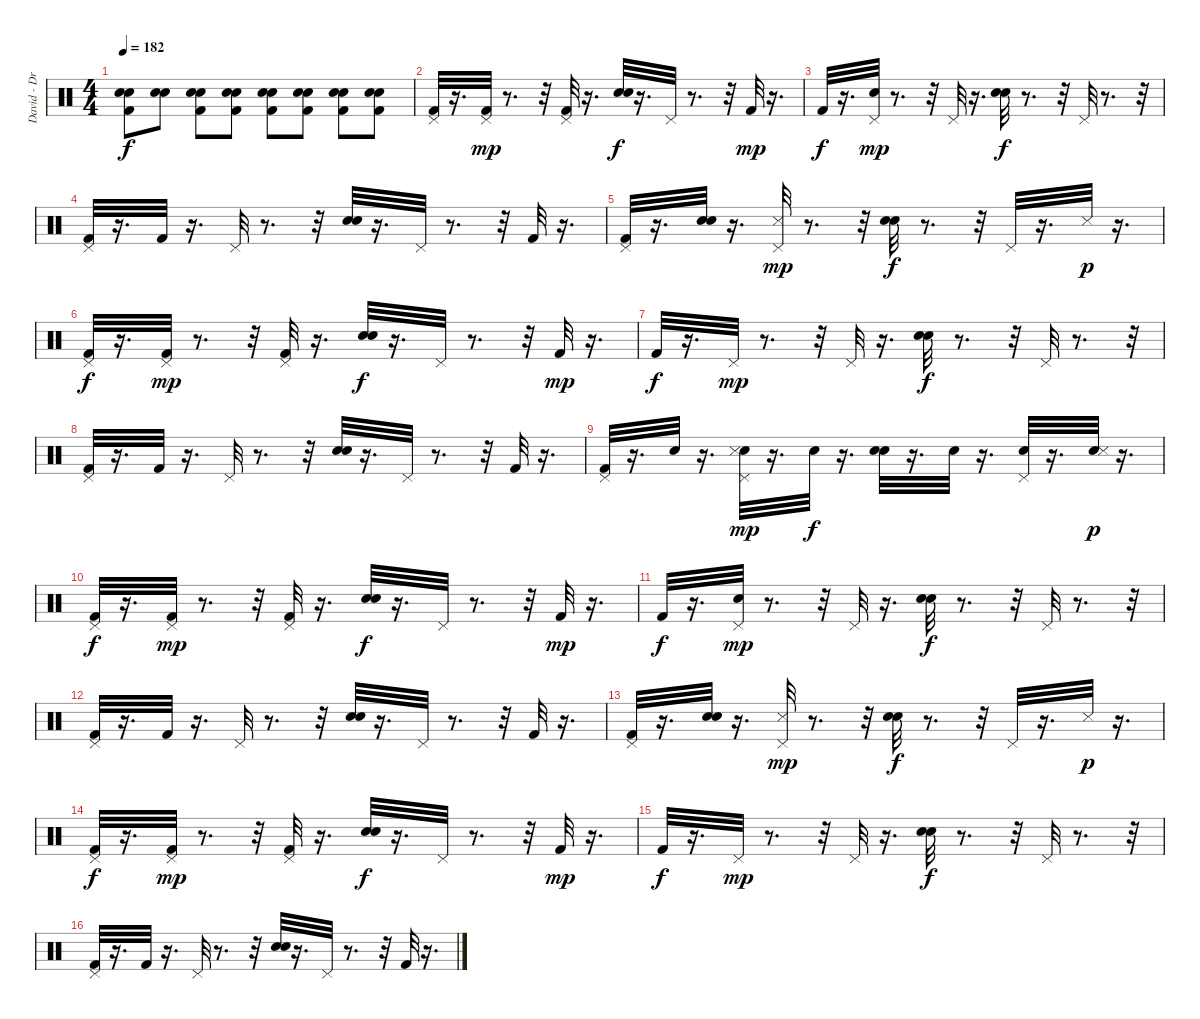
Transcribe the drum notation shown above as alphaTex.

\track ("David - Drums" "David - Dr") {instrument percussion}
\staff {score}
\articulation defaults
\ts (4 4)
\tempo 182
\clef neutral
\ks c
("Electric Snare (hit)" "Kick (hit) 2" "Snare (hit) 2").8{dy f} ("Electric Snare (hit)" "Snare (hit) 2").8 ("Electric Snare (hit)" "Kick (hit) 2" "Snare (hit) 2").8 ("Electric Snare (hit)" "Snare (hit) 2" "Kick (hit) 2").8 ("Electric Snare (hit)" "Kick (hit) 2" "Snare (hit) 2").8 ("Electric Snare (hit)" "Snare (hit) 2" "Kick (hit) 2").8 ("Electric Snare (hit)" "Kick (hit) 2" "Snare (hit) 2").8 ("Electric Snare (hit)" "Snare (hit) 2" "Kick (hit) 2").8 |
("Pedal Hi-Hat (hit)" "Kick (hit) 2").32 r.16{d} ("Kick (hit) 2" "Pedal Hi-Hat (hit)").32{dy mp} r.8{d} r.32 ("Pedal Hi-Hat (hit)" "Kick (hit) 2").32 r.16{d} ("Snare (hit) 2" "Electric Snare (hit)").32{dy f} r.16{d} "Pedal Hi-Hat (hit)".32 r.8{d} r.32 "Kick (hit) 2".32{dy mp} r.16{d} |
"Kick (hit) 2".32{dy f} r.16{d} ("Pedal Hi-Hat (hit)" "Electric Snare (hit)").32{dy mp} r.8{d} r.32 "Pedal Hi-Hat (hit)".32 r.16{d} ("Snare (hit) 2" "Electric Snare (hit)").32{dy f} r.8{d} r.32 "Pedal Hi-Hat (hit)".32 r.8{d} r.32 |
("Pedal Hi-Hat (hit)" "Kick (hit) 2").32 r.16{d} "Kick (hit) 2".32 r.16{d} "Pedal Hi-Hat (hit)".32 r.8{d} r.32 ("Snare (hit) 2" "Electric Snare (hit)").32 r.16{d} "Pedal Hi-Hat (hit)".32 r.8{d} r.32 "Kick (hit) 2".32 r.16{d} |
("Pedal Hi-Hat (hit)" "Kick (hit) 2").32 r.16{d} ("Snare (hit) 2" "Hand Clap (hit)").32 r.16{d} ("Pedal Hi-Hat (hit)" "Snare (side stick) 3").32{dy mp} r.8{d} r.32 ("Snare (hit) 2" "Electric Snare (hit)").32{dy f} r.8{d} r.32 "Pedal Hi-Hat (hit)".32 r.16{d} "Snare (side stick) 3".32{dy p} r.16{d} |
("Pedal Hi-Hat (hit)" "Kick (hit) 2").32{dy f} r.16{d} ("Kick (hit) 2" "Pedal Hi-Hat (hit)").32{dy mp} r.8{d} r.32 ("Pedal Hi-Hat (hit)" "Kick (hit) 2").32 r.16{d} ("Snare (hit) 2" "Electric Snare (hit)").32{dy f} r.16{d} "Pedal Hi-Hat (hit)".32 r.8{d} r.32 "Kick (hit) 2".32{dy mp} r.16{d} |
"Kick (hit) 2".32{dy f} r.16{d} "Pedal Hi-Hat (hit)".32{dy mp} r.8{d} r.32 "Pedal Hi-Hat (hit)".32 r.16{d} ("Snare (hit) 2" "Electric Snare (hit)").32{dy f} r.8{d} r.32 "Pedal Hi-Hat (hit)".32 r.8{d} r.32 |
("Pedal Hi-Hat (hit)" "Kick (hit) 2").32 r.16{d} "Kick (hit) 2".32 r.16{d} "Pedal Hi-Hat (hit)".32 r.8{d} r.32 ("Snare (hit) 2" "Electric Snare (hit)").32 r.16{d} "Pedal Hi-Hat (hit)".32 r.8{d} r.32 "Kick (hit) 2".32 r.16{d} |
("Pedal Hi-Hat (hit)" "Kick (hit) 2").32 r.16{d} "Electric Snare (hit)".32 r.16{d} ("Electric Snare (hit)" "Pedal Hi-Hat (hit)" "Snare (side stick) 3").32{dy mp} r.16{d} "Electric Snare (hit)".32{dy f} r.16{d} ("Snare (hit) 2" "Electric Snare (hit)").32 r.16{d} "Electric Snare (hit)".32 r.16{d} ("Electric Snare (hit)" "Pedal Hi-Hat (hit)").32 r.16{d} ("Electric Snare (hit)" "Snare (side stick) 3").32{dy p} r.16{d} |
("Pedal Hi-Hat (hit)" "Kick (hit) 2").32{dy f} r.16{d} ("Kick (hit) 2" "Pedal Hi-Hat (hit)").32{dy mp} r.8{d} r.32 ("Pedal Hi-Hat (hit)" "Kick (hit) 2").32 r.16{d} ("Snare (hit) 2" "Electric Snare (hit)").32{dy f} r.16{d} "Pedal Hi-Hat (hit)".32 r.8{d} r.32 "Kick (hit) 2".32{dy mp} r.16{d} |
"Kick (hit) 2".32{dy f} r.16{d} ("Pedal Hi-Hat (hit)" "Electric Snare (hit)").32{dy mp} r.8{d} r.32 "Pedal Hi-Hat (hit)".32 r.16{d} ("Snare (hit) 2" "Electric Snare (hit)").32{dy f} r.8{d} r.32 "Pedal Hi-Hat (hit)".32 r.8{d} r.32 |
("Pedal Hi-Hat (hit)" "Kick (hit) 2").32 r.16{d} "Kick (hit) 2".32 r.16{d} "Pedal Hi-Hat (hit)".32 r.8{d} r.32 ("Snare (hit) 2" "Electric Snare (hit)").32 r.16{d} "Pedal Hi-Hat (hit)".32 r.8{d} r.32 "Kick (hit) 2".32 r.16{d} |
("Pedal Hi-Hat (hit)" "Kick (hit) 2").32 r.16{d} ("Snare (hit) 2" "Hand Clap (hit)").32 r.16{d} ("Pedal Hi-Hat (hit)" "Snare (side stick) 3").32{dy mp} r.8{d} r.32 ("Snare (hit) 2" "Electric Snare (hit)").32{dy f} r.8{d} r.32 "Pedal Hi-Hat (hit)".32 r.16{d} "Snare (side stick) 3".32{dy p} r.16{d} |
("Pedal Hi-Hat (hit)" "Kick (hit) 2").32{dy f} r.16{d} ("Kick (hit) 2" "Pedal Hi-Hat (hit)").32{dy mp} r.8{d} r.32 ("Pedal Hi-Hat (hit)" "Kick (hit) 2").32 r.16{d} ("Snare (hit) 2" "Electric Snare (hit)").32{dy f} r.16{d} "Pedal Hi-Hat (hit)".32 r.8{d} r.32 "Kick (hit) 2".32{dy mp} r.16{d} |
"Kick (hit) 2".32{dy f} r.16{d} "Pedal Hi-Hat (hit)".32{dy mp} r.8{d} r.32 "Pedal Hi-Hat (hit)".32 r.16{d} ("Snare (hit) 2" "Electric Snare (hit)").32{dy f} r.8{d} r.32 "Pedal Hi-Hat (hit)".32 r.8{d} r.32 |
("Pedal Hi-Hat (hit)" "Kick (hit) 2").32 r.16{d} "Kick (hit) 2".32 r.16{d} "Pedal Hi-Hat (hit)".32 r.8{d} r.32 ("Snare (hit) 2" "Electric Snare (hit)").32 r.16{d} "Pedal Hi-Hat (hit)".32 r.8{d} r.32 "Kick (hit) 2".32 r.16{d}
